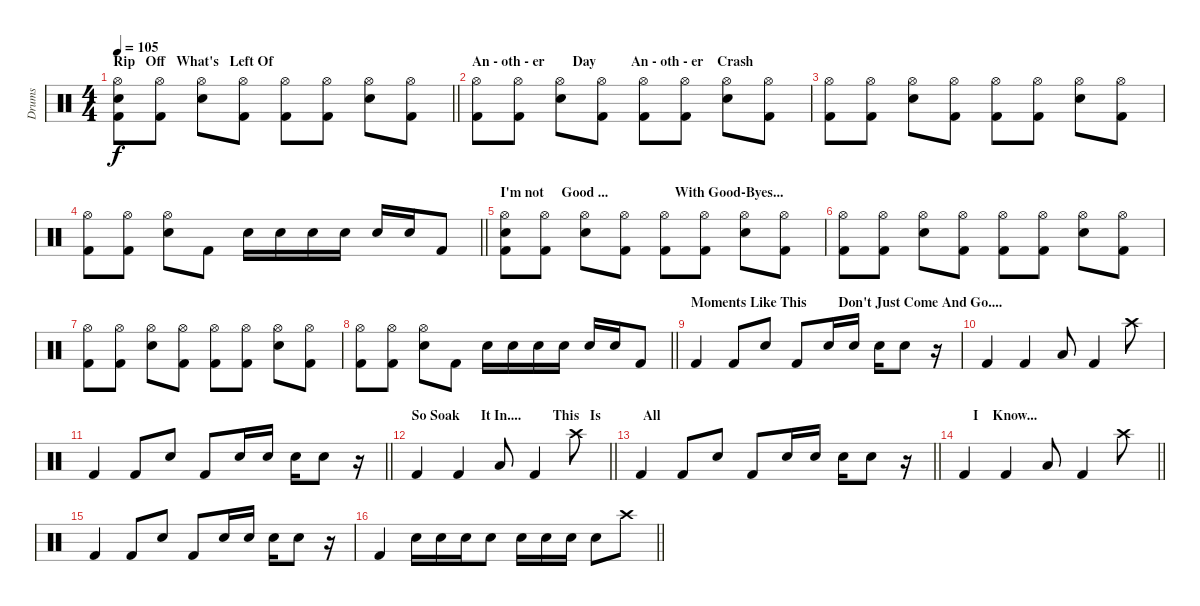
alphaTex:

\track ("Drums " "Drums ") {instrument percussion}
\staff {score}
\articulation defaults
\ts (4 4)
\section ("" "Rip   Off   What's   Left Of")
\tempo 105
\clef neutral
\barLineRight lightlight
\ks c
("Hi-Hat (open)" "Kick (hit) 2" "Snare (hit) 2").8{dy f} ("Hi-Hat (open)" "Kick (hit) 2").8 ("Hi-Hat (open)" "Snare (hit) 2").8 ("Hi-Hat (open)" "Kick (hit) 2").8 ("Hi-Hat (open)" "Kick (hit) 2").8 ("Hi-Hat (open)" "Kick (hit) 2").8 ("Hi-Hat (open)" "Snare (hit) 2").8 ("Hi-Hat (open)" "Kick (hit) 2").8 |
\section ("" "An - oth - er        Day          An - oth - er    Crash")
("Hi-Hat (open)" "Kick (hit) 2").8 ("Hi-Hat (open)" "Kick (hit) 2").8 ("Hi-Hat (open)" "Snare (hit) 2").8 ("Hi-Hat (open)" "Kick (hit) 2").8 ("Hi-Hat (open)" "Kick (hit) 2").8 ("Hi-Hat (open)" "Kick (hit) 2").8 ("Hi-Hat (open)" "Snare (hit) 2").8 ("Hi-Hat (open)" "Kick (hit) 2").8 |
("Hi-Hat (open)" "Kick (hit) 2").8 ("Hi-Hat (open)" "Kick (hit) 2").8 ("Hi-Hat (open)" "Snare (hit) 2").8 ("Hi-Hat (open)" "Kick (hit) 2").8 ("Hi-Hat (open)" "Kick (hit) 2").8 ("Hi-Hat (open)" "Kick (hit) 2").8 ("Hi-Hat (open)" "Snare (hit) 2").8 ("Hi-Hat (open)" "Kick (hit) 2").8 |
\barLineRight lightlight
("Hi-Hat (open)" "Kick (hit) 2").8 ("Hi-Hat (open)" "Kick (hit) 2").8 ("Hi-Hat (open)" "Snare (hit) 2").8 "Kick (hit) 2".8 "Snare (hit) 2".16 "Snare (hit) 2".16 "Snare (hit) 2".16 "Snare (hit) 2".16 "Snare (hit) 2".16 "Snare (hit) 2".16 "Kick (hit) 2".8 |
\section ("" "I'm not     Good ...                   With Good-Byes...")
("Hi-Hat (open)" "Kick (hit) 2" "Snare (hit) 2").8 ("Hi-Hat (open)" "Kick (hit) 2").8 ("Hi-Hat (open)" "Snare (hit) 2").8 ("Hi-Hat (open)" "Kick (hit) 2").8 ("Hi-Hat (open)" "Kick (hit) 2").8 ("Hi-Hat (open)" "Kick (hit) 2").8 ("Hi-Hat (open)" "Snare (hit) 2").8 ("Hi-Hat (open)" "Kick (hit) 2").8 |
("Hi-Hat (open)" "Kick (hit) 2").8 ("Hi-Hat (open)" "Kick (hit) 2").8 ("Hi-Hat (open)" "Snare (hit) 2").8 ("Hi-Hat (open)" "Kick (hit) 2").8 ("Hi-Hat (open)" "Kick (hit) 2").8 ("Hi-Hat (open)" "Kick (hit) 2").8 ("Hi-Hat (open)" "Snare (hit) 2").8 ("Hi-Hat (open)" "Kick (hit) 2").8 |
("Hi-Hat (open)" "Kick (hit) 2").8 ("Hi-Hat (open)" "Kick (hit) 2").8 ("Hi-Hat (open)" "Snare (hit) 2").8 ("Hi-Hat (open)" "Kick (hit) 2").8 ("Hi-Hat (open)" "Kick (hit) 2").8 ("Hi-Hat (open)" "Kick (hit) 2").8 ("Hi-Hat (open)" "Snare (hit) 2").8 ("Hi-Hat (open)" "Kick (hit) 2").8 |
\barLineRight lightlight
("Hi-Hat (open)" "Kick (hit) 2").8 ("Hi-Hat (open)" "Kick (hit) 2").8 ("Hi-Hat (open)" "Snare (hit) 2").8 "Kick (hit) 2".8 "Snare (hit) 2".16 "Snare (hit) 2".16 "Snare (hit) 2".16 "Snare (hit) 2".16 "Snare (hit) 2".16 "Snare (hit) 2".16 "Kick (hit) 2".8 |
\section ("" "Moments Like This         Don't Just Come And Go....              ")
"Kick (hit) 2".4 "Kick (hit) 2".8 "Snare (hit) 2".8 "Kick (hit) 2".8 "Snare (hit) 2".16 "Snare (hit) 2".16 "Snare (hit) 2".16 "Snare (hit) 2".8 r.16 |
"Kick (hit) 2".4 "Kick (hit) 2".4 "Low Tom (hit)".8 "Kick (hit) 2".4 "Crash high (hit)".8 |
\barLineRight lightlight "Kick (hit) 2".4 "Kick (hit) 2".8 "Snare (hit) 2".8 "Kick (hit) 2".8 "Snare (hit) 2".16 "Snare (hit) 2".16 "Snare (hit) 2".16 "Snare (hit) 2".8
r.16 |
\section ("" "So Soak      It In....         This   Is            All")
\barLineRight lightlight "Kick (hit) 2".4 "Kick (hit) 2".4 "Low Tom (hit)".8 "Kick (hit) 2".4 "Crash high (hit)".8
|
\section ("" "")
\barLineRight lightlight "Kick (hit) 2".4 "Kick (hit) 2".8 "Snare (hit) 2".8 "Kick (hit) 2".8 "Snare (hit) 2".16 "Snare (hit) 2".16 "Snare (hit) 2".16 "Snare (hit) 2".8
r.16 |
\section ("" "    I    Know...")
\barLineRight lightlight "Kick (hit) 2".4 "Kick (hit) 2".4 "Low Tom (hit)".8 "Kick (hit) 2".4 "Crash high (hit)".8
|
"Kick (hit) 2".4 "Kick (hit) 2".8 "Snare (hit) 2".8 "Kick (hit) 2".8 "Snare (hit) 2".16 "Snare (hit) 2".16 "Snare (hit) 2".16 "Snare (hit) 2".8 r.16 |
\barLineRight lightlight "Kick (hit) 2".4 "Snare (hit) 2".16 "Snare (hit) 2".16 "Snare (hit) 2".16 "Snare (hit) 2".8 "Snare (hit) 2".16 "Snare (hit) 2".16 "Snare (hit) 2".16 "Snare (hit) 2".8 "Crash high (hit)".8
